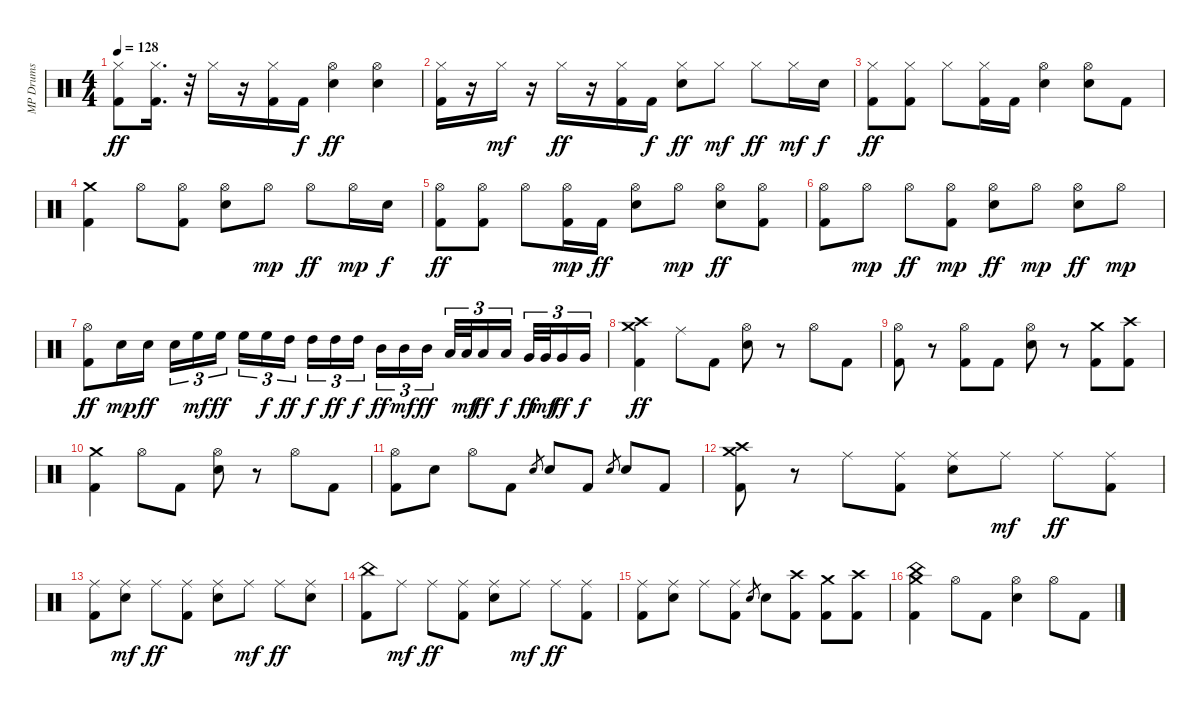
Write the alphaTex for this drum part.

\track ("MP Drums" "MP Drums") {instrument percussion}
\staff {score}
\articulation defaults
\ts (4 4)
\tempo 128
\clef neutral
\ks c
("Hi-Hat (closed)" "Kick (hit) 2").8{dy ff} ("Hi-Hat (closed)" "Kick (hit) 2").16{d} r.32 "Hi-Hat (closed)".16 r.16 ("Hi-Hat (closed)" "Kick (hit) 2").16 "Kick (hit) 2".16{dy f} ("Hi-Hat (open)" "Snare (hit) 2").4{dy ff} ("Hi-Hat (open)" "Snare (hit) 2").4 |
("Hi-Hat (closed)" "Kick (hit) 2").16 r.16 "Hi-Hat (closed)".16{dy mf} r.16 "Hi-Hat (closed)".16{dy ff} r.16 ("Hi-Hat (closed)" "Kick (hit) 2").16 "Kick (hit) 2".16{dy f} ("Hi-Hat (closed)" "Snare (hit) 2").8{dy ff} "Hi-Hat (closed)".8{dy mf} "Hi-Hat (closed)".8{dy ff} "Hi-Hat (closed)".16{dy mf} "Snare (hit) 2".16{dy f} |
("Hi-Hat (closed)" "Kick (hit) 2").8{dy ff} ("Hi-Hat (closed)" "Kick (hit) 2").8 "Hi-Hat (closed)".8 ("Hi-Hat (closed)" "Kick (hit) 2").16 "Kick (hit) 2".16 ("Hi-Hat (open)" "Snare (hit) 2").4 ("Hi-Hat (open)" "Snare (hit) 2").8 "Kick (hit) 2".8 |
("Crash medium (hit)" "Kick (hit) 2").4 "Hi-Hat (open)".8 ("Hi-Hat (open)" "Kick (hit) 2").8 ("Hi-Hat (open)" "Snare (hit) 2").8 "Hi-Hat (open)".8{dy mp} "Hi-Hat (open)".8{dy ff} "Hi-Hat (open)".16{dy mp} "Snare (hit) 2".16{dy f} |
("Hi-Hat (open)" "Kick (hit) 2").8{dy ff} ("Hi-Hat (open)" "Kick (hit) 2").8 "Hi-Hat (open)".8 ("Hi-Hat (open)" "Kick (hit) 2").16{dy mp} "Kick (hit) 2".16{dy ff} ("Hi-Hat (open)" "Snare (hit) 2").8 "Hi-Hat (open)".8{dy mp} ("Hi-Hat (open)" "Snare (hit) 2").8{dy ff} ("Hi-Hat (open)" "Kick (hit) 2").8 |
("Hi-Hat (open)" "Kick (hit) 2").8 "Hi-Hat (open)".8{dy mp} "Hi-Hat (open)".8{dy ff} ("Hi-Hat (open)" "Kick (hit) 2").8{dy mp} ("Hi-Hat (open)" "Snare (hit) 2").8{dy ff} "Hi-Hat (open)".8{dy mp} ("Hi-Hat (open)" "Snare (hit) 2").8{dy ff} "Hi-Hat (open)".8{dy mp} |
("Hi-Hat (open)" "Kick (hit) 2").8{dy ff} "Snare (hit) 2".16{dy mp} "Snare (hit) 2".16{dy ff} "Snare (hit) 2".16{tu (3 2)} "High Floor Tom (hit)".16{tu (3 2) dy mf} "High Floor Tom (hit)".16{tu (3 2) dy ff} "High Floor Tom (hit)".16{tu (3 2)} "High Floor Tom (hit)".16{tu (3 2) dy f} "High Tom (hit)".16{tu (3 2) dy ff} "High Tom (hit)".16{tu (3 2) dy f} "High Tom (hit)".16{tu (3 2) dy ff} "High Tom (hit)".16{tu (3 2) dy f} "Mid Tom (hit)".16{tu (3 2) dy ff} "Mid Tom (hit)".16{tu (3 2) dy mf} "Mid Tom (hit)".16{tu (3 2) dy ff} "Low Tom (hit)".32{tu (3 2)} "Low Tom (hit)".32{tu (3 2) dy mf} "Low Tom (hit)".16{tu (3 2) dy ff} "Low Tom (hit)".16{tu (3 2) dy f} "Very Low Tom (hit)".32{tu (3 2) dy ff} "Very Low Tom (hit)".32{tu (3 2) dy mf} "Very Low Tom (hit)".16{tu (3 2) dy ff} "Very Low Tom (hit)".16{tu (3 2) dy f} |
("Crash high (hit)" "Crash medium (hit)" "Kick (hit) 2").4{dy ff} "Ride (middle)".8 "Kick (hit) 2".8 ("Hi-Hat (open)" "Snare (hit) 2").8 r.8 "Hi-Hat (open)".8 "Kick (hit) 2".8 |
("Hi-Hat (open)" "Kick (hit) 2").8 r.8 ("Hi-Hat (open)" "Kick (hit) 2").8 "Kick (hit) 2".8 ("Hi-Hat (open)" "Snare (hit) 2").8 r.8 ("Crash medium (hit)" "Kick (hit) 2").8 ("Crash high (hit)" "Kick (hit) 2").8 |
("Crash medium (hit)" "Kick (hit) 2").4 "Hi-Hat (open)".8 "Kick (hit) 2".8 ("Hi-Hat (open)" "Snare (hit) 2").8 r.8 "Hi-Hat (open)".8 "Kick (hit) 2".8 |
("Hi-Hat (open)" "Kick (hit) 2").8 "Snare (hit) 2".8 "Hi-Hat (open)".8 "Kick (hit) 2".8 "Snare (hit) 2".8{gr} "Snare (hit) 2".8 "Kick (hit) 2".8 "Snare (hit) 2".8{gr} "Snare (hit) 2".8 "Kick (hit) 2".8 |
("Crash high (hit)" "Crash medium (hit)" "Kick (hit) 2").8 r.8 "Ride (middle)".8 ("Ride (middle)" "Kick (hit) 2").8 ("Ride (middle)" "Snare (hit) 2").8 "Ride (middle)".8{dy mf} "Ride (middle)".8{dy ff} ("Ride (middle)" "Kick (hit) 2").8 |
("Ride (middle)" "Kick (hit) 2").8 ("Ride (middle)" "Snare (hit) 2").8{dy mf} "Ride (middle)".8{dy ff} ("Ride (middle)" "Kick (hit) 2").8 ("Ride (middle)" "Snare (hit) 2").8 "Ride (middle)".8{dy mf} "Ride (middle)".8{dy ff} ("Ride (middle)" "Snare (hit) 2").8 |
("China (hit)" "Kick (hit) 2").8 "Ride (middle)".8{dy mf} "Ride (middle)".8{dy ff} ("Ride (middle)" "Kick (hit) 2").8 ("Ride (middle)" "Snare (hit) 2").8 "Ride (middle)".8{dy mf} "Ride (middle)".8{dy ff} ("Ride (middle)" "Kick (hit) 2").8 |
("Ride (middle)" "Kick (hit) 2").8 ("Ride (middle)" "Snare (hit) 2").8 "Ride (middle)".8 ("Ride (middle)" "Kick (hit) 2").8 "Snare (hit) 2".8{gr} "Snare (hit) 2".8 ("Crash high (hit)" "Kick (hit) 2").8 ("Crash medium (hit)" "Kick (hit) 2").8 ("Crash high (hit)" "Kick (hit) 2").8 |
("China (hit)" "Crash medium (hit)" "Kick (hit) 2").4 "Hi-Hat (open)".8 "Kick (hit) 2".8 ("Hi-Hat (open)" "Snare (hit) 2").4 "Hi-Hat (open)".8 "Kick (hit) 2".8
